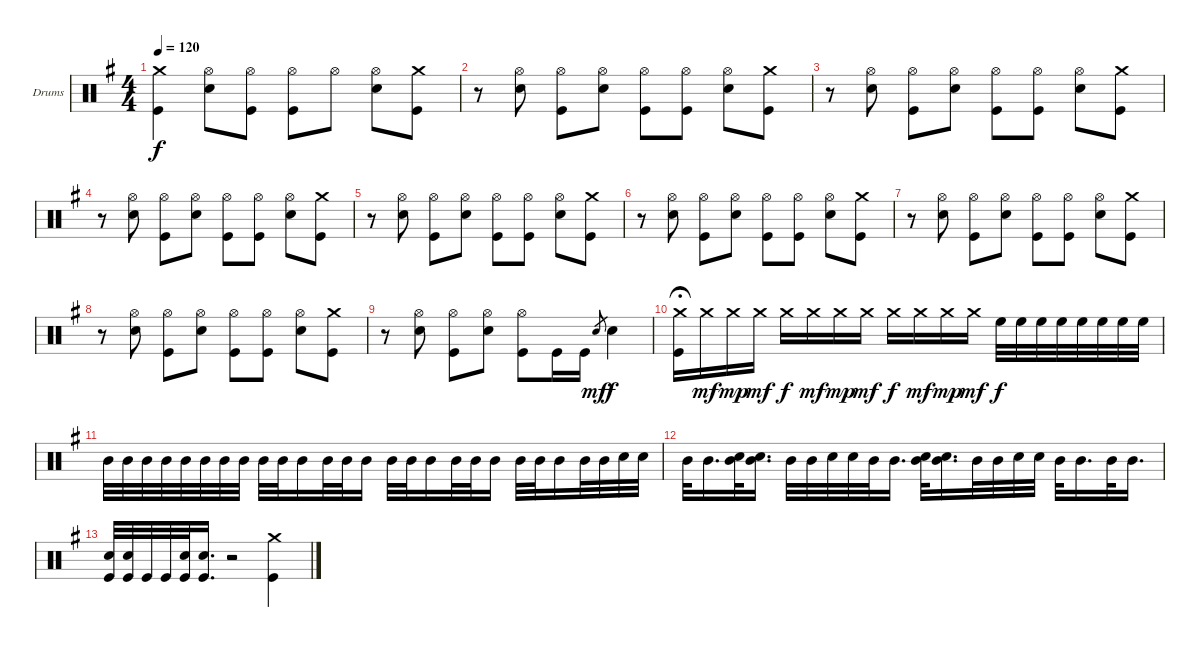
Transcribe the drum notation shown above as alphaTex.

\defaultSystemsLayout 4
\bracketExtendMode groupsimilarinstruments
\firstSystemTrackNameOrientation horizontal
\otherSystemsTrackNameOrientation horizontal
\track ("Drumkit" "Drums") {instrument percussion}
\staff {score}
\articulation defaults
\ts (4 4)
\tempo 120
\clef neutral
\scale
1.04288
\ks g
("Crash medium (hit)" "Kick (hit)").4{dy f} ("Hi-Hat (open)" "Snare (hit) 2").8 ("Hi-Hat (open)" "Kick (hit)").8 ("Hi-Hat (open)" "Kick (hit)").8 "Hi-Hat (open)".8 ("Hi-Hat (open)" "Snare (hit) 2").8 ("Crash medium (hit)" "Kick (hit)").8 |
\scale
0.957125 r.8 ("Hi-Hat (open)" "Snare (hit) 2").8 ("Hi-Hat (open)" "Kick (hit)").8 ("Hi-Hat (open)" "Snare (hit) 2").8 ("Hi-Hat (open)" "Kick (hit)").8 ("Hi-Hat (open)" "Kick (hit)").8 ("Hi-Hat (open)" "Snare (hit) 2").8 ("Crash medium (hit)" "Kick (hit)").8 |
\scale
1.04288 r.8 ("Hi-Hat (open)" "Snare (hit) 2").8 ("Hi-Hat (open)" "Kick (hit)").8 ("Hi-Hat (open)" "Snare (hit) 2").8 ("Hi-Hat (open)" "Kick (hit)").8 ("Hi-Hat (open)" "Kick (hit)").8 ("Hi-Hat (open)" "Snare (hit) 2").8 ("Crash medium (hit)" "Kick (hit)").8 |
\scale
0.957125 r.8 ("Hi-Hat (open)" "Snare (hit) 2").8 ("Hi-Hat (open)" "Kick (hit)").8 ("Hi-Hat (open)" "Snare (hit) 2").8 ("Hi-Hat (open)" "Kick (hit)").8 ("Hi-Hat (open)" "Kick (hit)").8 ("Hi-Hat (open)" "Snare (hit) 2").8 ("Crash medium (hit)" "Kick (hit)").8 |
\scale
1.04288 r.8 ("Hi-Hat (open)" "Snare (hit) 2").8 ("Hi-Hat (open)" "Kick (hit)").8 ("Hi-Hat (open)" "Snare (hit) 2").8 ("Hi-Hat (open)" "Kick (hit)").8 ("Hi-Hat (open)" "Kick (hit)").8 ("Hi-Hat (open)" "Snare (hit) 2").8 ("Crash medium (hit)" "Kick (hit)").8 |
\scale
0.957125 r.8 ("Hi-Hat (open)" "Snare (hit) 2").8 ("Hi-Hat (open)" "Kick (hit)").8 ("Hi-Hat (open)" "Snare (hit) 2").8 ("Hi-Hat (open)" "Kick (hit)").8 ("Hi-Hat (open)" "Kick (hit)").8 ("Hi-Hat (open)" "Snare (hit) 2").8 ("Crash medium (hit)" "Kick (hit)").8 |
\scale
1.04288 r.8 ("Hi-Hat (open)" "Snare (hit) 2").8 ("Hi-Hat (open)" "Kick (hit)").8 ("Hi-Hat (open)" "Snare (hit) 2").8 ("Hi-Hat (open)" "Kick (hit)").8 ("Hi-Hat (open)" "Kick (hit)").8 ("Hi-Hat (open)" "Snare (hit) 2").8 ("Crash medium (hit)" "Kick (hit)").8 |
\scale
0.957125 r.8 ("Hi-Hat (open)" "Snare (hit) 2").8 ("Hi-Hat (open)" "Kick (hit)").8 ("Hi-Hat (open)" "Snare (hit) 2").8 ("Hi-Hat (open)" "Kick (hit)").8 ("Hi-Hat (open)" "Kick (hit)").8 ("Hi-Hat (open)" "Snare (hit) 2").8 ("Crash medium (hit)" "Kick (hit)").8 |
\scale
1.04288 r.8 ("Hi-Hat (open)" "Snare (hit) 2").8 ("Hi-Hat (open)" "Kick (hit)").8 ("Hi-Hat (open)" "Snare (hit) 2").8 ("Hi-Hat (open)" "Kick (hit)").8 "Kick (hit)".16 "Kick (hit)".16 "Snare (hit) 2".8{gr dy mf} "Snare (hit) 2".4{dy f} |
\scale
0.957125 ("Crash medium (hit)" "Kick (hit)").16{fermata (medium 0.5)} "Crash medium (hit)".16{dy mf} "Crash medium (hit)".16{dy mp} "Crash medium (hit)".16{dy mf} "Crash medium (hit)".16{dy f} "Crash medium (hit)".16{dy mf} "Crash medium (hit)".16{dy mp} "Crash medium (hit)".16{dy mf} "Crash medium (hit)".16{dy f} "Crash medium (hit)".16{dy mf} "Crash medium (hit)".16{dy mp} "Crash medium (hit)".16{dy mf} "High Floor Tom (hit)".32{dy f} "High Floor Tom (hit)".32 "High Floor Tom (hit)".32 "High Floor Tom (hit)".32 "High Floor Tom (hit)".32 "High Floor Tom (hit)".32 "High Floor Tom (hit)".32 "High Floor Tom (hit)".32 |
\scale
1.04288 "Mid Tom (hit)".32 "Mid Tom (hit)".32 "Mid Tom (hit)".32 "Mid Tom (hit)".32 "Mid Tom (hit)".32 "Mid Tom (hit)".32 "Mid Tom (hit)".32 "Mid Tom (hit)".32 "Mid Tom (hit)".32 "Mid Tom (hit)".32 "Mid Tom (hit)".16 "Mid Tom (hit)".32 "Mid Tom (hit)".32 "Mid Tom (hit)".16 "Mid Tom (hit)".32 "Mid Tom (hit)".32 "Mid Tom (hit)".16 "Mid Tom (hit)".32 "Mid Tom (hit)".32 "Mid Tom (hit)".16 "Mid Tom (hit)".32 "Mid Tom (hit)".32 "Mid Tom (hit)".16 "Mid Tom (hit)".32 "Mid Tom (hit)".32 "Snare (hit) 2".32 "Snare (hit) 2".32 |
\scale
0.957125 "Mid Tom (hit)".32 "Mid Tom (hit)".16{d} ("Snare (hit) 2" "Mid Tom (hit)").32 ("Snare (hit) 2" "Mid Tom (hit)").16{d} "Mid Tom (hit)".32 "Mid Tom (hit)".32 "Snare (hit) 2".32 "Snare (hit) 2".32 "Mid Tom (hit)".32 "Mid Tom (hit)".16{d} ("Snare (hit) 2" "Mid Tom (hit)").32 ("Snare (hit) 2" "Mid Tom (hit)").16{d} "Mid Tom (hit)".32 "Mid Tom (hit)".32 "Snare (hit) 2".32 "Snare (hit) 2".32 "Mid Tom (hit)".32 "Mid Tom (hit)".16{d} "Mid Tom (hit)".32 "Mid Tom (hit)".16{d} |
("Snare (hit) 2" "Kick (hit)").32 ("Snare (hit) 2" "Kick (hit)").32 "Kick (hit)".32 "Kick (hit)".32 ("Snare (hit) 2" "Kick (hit)").32 ("Snare (hit) 2" "Kick (hit)").16{d} r.2 ("Crash medium (hit)" "Kick (hit)").4
